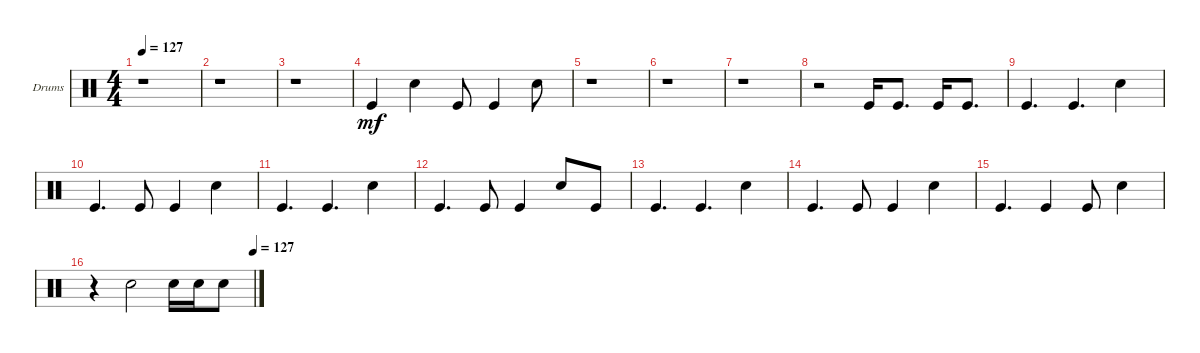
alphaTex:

\bracketExtendMode groupsimilarinstruments
\firstSystemTrackNameOrientation horizontal
\otherSystemsTrackNameOrientation horizontal
\track ("Drums" "Drums") {instrument percussion}
\staff {score}
\articulation defaults
\ts (4 4)
\tempo 127
\clef neutral
\ks c
r.1{dy mf} |
r.1 |
r.1 |
"Kick (hit)".4 "Snare (hit) 2".4 "Kick (hit)".8 "Kick (hit)".4 "Snare (hit) 2".8 |
r.1 |
r.1 |
r.1 |
r.2 "Kick (hit)".16 "Kick (hit)".8{d} "Kick (hit)".16 "Kick (hit)".8{d} |
"Kick (hit)".4{d} "Kick (hit)".4{d} "Snare (hit) 2".4 |
"Kick (hit)".4{d} "Kick (hit)".8 "Kick (hit)".4 "Snare (hit) 2".4 |
"Kick (hit)".4{d} "Kick (hit)".4{d} "Snare (hit) 2".4 |
"Kick (hit)".4{d} "Kick (hit)".8 "Kick (hit)".4 "Snare (hit) 2".8 "Kick (hit)".8 |
"Kick (hit)".4{d} "Kick (hit)".4{d} "Snare (hit) 2".4 |
"Kick (hit)".4{d} "Kick (hit)".8 "Kick (hit)".4 "Snare (hit) 2".4 |
"Kick (hit)".4{d} "Kick (hit)".4 "Kick (hit)".8 "Snare (hit) 2".4 |
\tempo (127 1)
r.4 "Snare (hit) 2".2 "Snare (hit) 2".16 "Snare (hit) 2".16 "Snare (hit) 2".8
